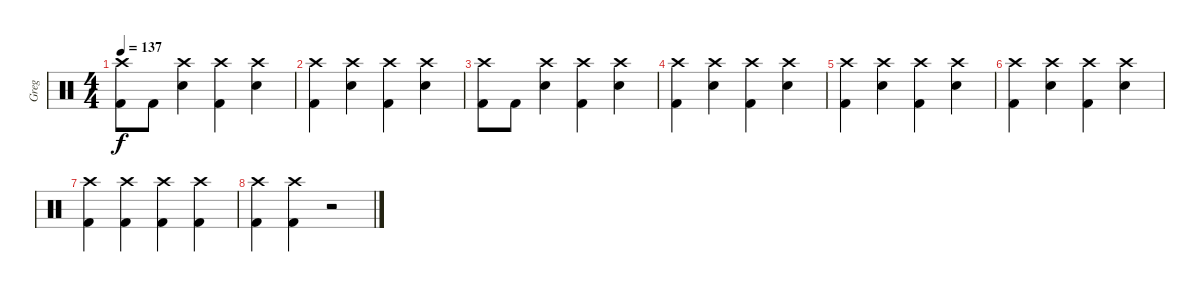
\track ("Greg" "Greg") {instrument percussion}
\staff {score}
\articulation defaults
\ts (4 4)
\tempo 137
\clef neutral
\ks c
("Crash high (hit)" "Kick (hit) 2").8{dy f} "Kick (hit) 2".8 ("Crash high (hit)" "Electric Snare (hit)").4 ("Crash high (hit)" "Kick (hit) 2").4 ("Crash high (hit)" "Electric Snare (hit)").4 |
("Crash high (hit)" "Kick (hit) 2").4 ("Crash high (hit)" "Electric Snare (hit)").4 ("Crash high (hit)" "Kick (hit) 2").4 ("Crash high (hit)" "Electric Snare (hit)").4 |
("Crash high (hit)" "Kick (hit) 2").8 "Kick (hit) 2".8 ("Crash high (hit)" "Electric Snare (hit)").4 ("Crash high (hit)" "Kick (hit) 2").4 ("Crash high (hit)" "Electric Snare (hit)").4 |
("Crash high (hit)" "Kick (hit) 2").4 ("Crash high (hit)" "Electric Snare (hit)").4 ("Crash high (hit)" "Kick (hit) 2").4 ("Crash high (hit)" "Electric Snare (hit)").4 |
("Crash high (hit)" "Kick (hit) 2").4 ("Crash high (hit)" "Electric Snare (hit)").4 ("Crash high (hit)" "Kick (hit) 2").4 ("Crash high (hit)" "Electric Snare (hit)").4 |
("Crash high (hit)" "Kick (hit) 2").4 ("Crash high (hit)" "Electric Snare (hit)").4 ("Crash high (hit)" "Kick (hit) 2").4 ("Crash high (hit)" "Electric Snare (hit)").4 |
("Crash high (hit)" "Kick (hit) 2").4 ("Crash high (hit)" "Kick (hit) 2").4 ("Crash high (hit)" "Kick (hit) 2").4 ("Crash high (hit)" "Kick (hit) 2").4 |
("Crash high (hit)" "Kick (hit) 2").4 ("Crash high (hit)" "Kick (hit) 2").4 r.2
